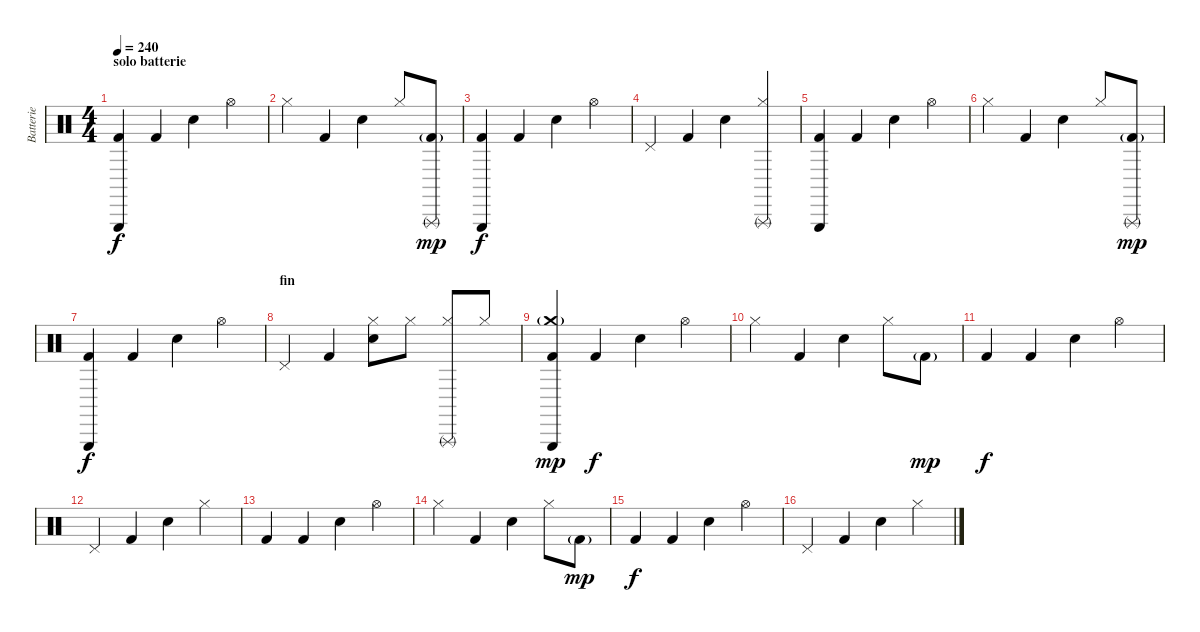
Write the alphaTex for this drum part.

\track ("Batterie" "Batterie") {instrument percussion}
\staff {score}
\articulation defaults
\ts (4 4)
\section ("" "solo batterie")
\tempo 240
\clef neutral
\ks c
("Triangle (hit)" "Kick (hit) 2").4{dy f} "Kick (hit) 2".4 "Snare (hit) 2".4 "Hi-Hat (open)".4 |
"Hi-Hat (closed)".4 "Kick (hit) 2".4 "Snare (hit) 2".4 "Hi-Hat (closed)".8 ("Triangle (rnute)" "Kick (hit) 2"{g}).8{dy mp} |
("Triangle (hit)" "Kick (hit) 2").4{dy f} "Kick (hit) 2".4 "Snare (hit) 2".4 "Hi-Hat (open)".4 |
"Pedal Hi-Hat (hit)".4 "Kick (hit) 2".4 "Snare (hit) 2".4 ("Hi-Hat (closed)" "Triangle (rnute)").4 |
("Triangle (hit)" "Kick (hit) 2").4 "Kick (hit) 2".4 "Snare (hit) 2".4 "Hi-Hat (open)".4 |
"Hi-Hat (closed)".4 "Kick (hit) 2".4 "Snare (hit) 2".4 "Hi-Hat (closed)".8 ("Triangle (rnute)" "Kick (hit) 2"{g}).8{dy mp} |
("Triangle (hit)" "Kick (hit) 2").4{dy f} "Kick (hit) 2".4 "Snare (hit) 2".4 "Hi-Hat (open)".4 |
\section ("" "fin")
"Pedal Hi-Hat (hit)".4 "Kick (hit) 2".4 ("Hi-Hat (closed)" "Snare (hit) 2").8 "Hi-Hat (closed)".8 ("Hi-Hat (closed)" "Triangle (rnute)").8 "Hi-Hat (closed)".8 |
("Crash medium (hit)"{g} "Triangle (hit)" "Kick (hit) 2").4{dy mp} "Kick (hit) 2".4{dy f} "Snare (hit) 2".4 "Hi-Hat (open)".4 |
"Hi-Hat (closed)".4 "Kick (hit) 2".4 "Snare (hit) 2".4 "Hi-Hat (closed)".8 "Kick (hit) 2"{g}.8{dy mp} |
"Kick (hit) 2".4{dy f} "Kick (hit) 2".4 "Snare (hit) 2".4 "Hi-Hat (open)".4 |
"Pedal Hi-Hat (hit)".4 "Kick (hit) 2".4 "Snare (hit) 2".4 "Hi-Hat (closed)".4 |
"Kick (hit) 2".4 "Kick (hit) 2".4 "Snare (hit) 2".4 "Hi-Hat (open)".4 |
"Hi-Hat (closed)".4 "Kick (hit) 2".4 "Snare (hit) 2".4 "Hi-Hat (closed)".8 "Kick (hit) 2"{g}.8{dy mp} |
"Kick (hit) 2".4{dy f} "Kick (hit) 2".4 "Snare (hit) 2".4 "Hi-Hat (open)".4 |
"Pedal Hi-Hat (hit)".4 "Kick (hit) 2".4 "Snare (hit) 2".4 "Hi-Hat (closed)".4
